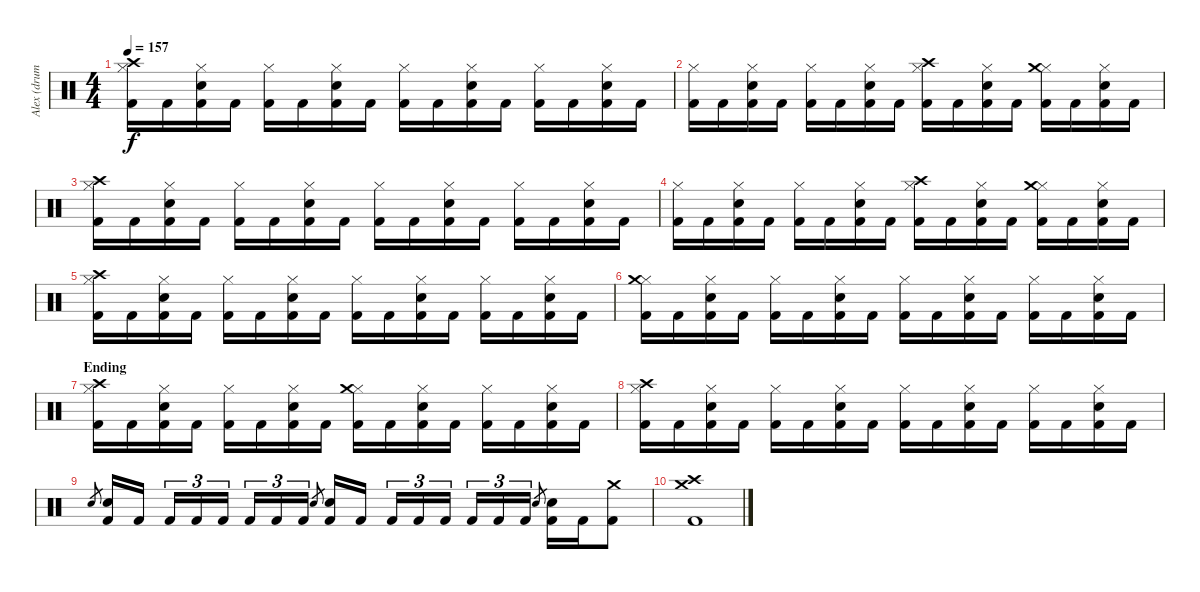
\track ("Alex (drums)" "Alex (drum") {instrument percussion}
\staff {score}
\articulation defaults
\ts (4 4)
\tempo 157
\clef neutral
\ks c
("Hi-Hat (closed)" "Kick (hit) 2" "Crash high (hit)").16{dy f} "Kick (hit) 2".16 ("Hi-Hat (closed)" "Snare (hit) 2" "Kick (hit) 2").16 "Kick (hit) 2".16 ("Hi-Hat (closed)" "Kick (hit) 2").16 "Kick (hit) 2".16 ("Hi-Hat (closed)" "Snare (hit) 2" "Kick (hit) 2").16 "Kick (hit) 2".16 ("Hi-Hat (closed)" "Kick (hit) 2").16 "Kick (hit) 2".16 ("Hi-Hat (closed)" "Snare (hit) 2" "Kick (hit) 2").16 "Kick (hit) 2".16 ("Hi-Hat (closed)" "Kick (hit) 2").16 "Kick (hit) 2".16 ("Hi-Hat (closed)" "Snare (hit) 2" "Kick (hit) 2").16 "Kick (hit) 2".16 |
("Hi-Hat (closed)" "Kick (hit) 2").16 "Kick (hit) 2".16 ("Hi-Hat (closed)" "Snare (hit) 2" "Kick (hit) 2").16 "Kick (hit) 2".16 ("Hi-Hat (closed)" "Kick (hit) 2").16 "Kick (hit) 2".16 ("Hi-Hat (closed)" "Snare (hit) 2" "Kick (hit) 2").16 "Kick (hit) 2".16 ("Hi-Hat (closed)" "Kick (hit) 2" "Crash high (hit)").16 "Kick (hit) 2".16 ("Hi-Hat (closed)" "Snare (hit) 2" "Kick (hit) 2").16 "Kick (hit) 2".16 ("Hi-Hat (closed)" "Kick (hit) 2" "Crash medium (hit)").16 "Kick (hit) 2".16 ("Hi-Hat (closed)" "Snare (hit) 2" "Kick (hit) 2").16 "Kick (hit) 2".16 |
("Hi-Hat (closed)" "Kick (hit) 2" "Crash high (hit)").16 "Kick (hit) 2".16 ("Hi-Hat (closed)" "Snare (hit) 2" "Kick (hit) 2").16 "Kick (hit) 2".16 ("Hi-Hat (closed)" "Kick (hit) 2").16 "Kick (hit) 2".16 ("Hi-Hat (closed)" "Snare (hit) 2" "Kick (hit) 2").16 "Kick (hit) 2".16 ("Hi-Hat (closed)" "Kick (hit) 2").16 "Kick (hit) 2".16 ("Hi-Hat (closed)" "Snare (hit) 2" "Kick (hit) 2").16 "Kick (hit) 2".16 ("Hi-Hat (closed)" "Kick (hit) 2").16 "Kick (hit) 2".16 ("Hi-Hat (closed)" "Snare (hit) 2" "Kick (hit) 2").16 "Kick (hit) 2".16 |
("Hi-Hat (closed)" "Kick (hit) 2").16 "Kick (hit) 2".16 ("Hi-Hat (closed)" "Snare (hit) 2" "Kick (hit) 2").16 "Kick (hit) 2".16 ("Hi-Hat (closed)" "Kick (hit) 2").16 "Kick (hit) 2".16 ("Hi-Hat (closed)" "Snare (hit) 2" "Kick (hit) 2").16 "Kick (hit) 2".16 ("Hi-Hat (closed)" "Kick (hit) 2" "Crash high (hit)").16 "Kick (hit) 2".16 ("Hi-Hat (closed)" "Snare (hit) 2" "Kick (hit) 2").16 "Kick (hit) 2".16 ("Hi-Hat (closed)" "Kick (hit) 2" "Crash medium (hit)").16 "Kick (hit) 2".16 ("Hi-Hat (closed)" "Snare (hit) 2" "Kick (hit) 2").16 "Kick (hit) 2".16 |
("Hi-Hat (closed)" "Kick (hit) 2" "Crash high (hit)").16 "Kick (hit) 2".16 ("Hi-Hat (closed)" "Snare (hit) 2" "Kick (hit) 2").16 "Kick (hit) 2".16 ("Hi-Hat (closed)" "Kick (hit) 2").16 "Kick (hit) 2".16 ("Hi-Hat (closed)" "Snare (hit) 2" "Kick (hit) 2").16 "Kick (hit) 2".16 ("Hi-Hat (closed)" "Kick (hit) 2").16 "Kick (hit) 2".16 ("Hi-Hat (closed)" "Snare (hit) 2" "Kick (hit) 2").16 "Kick (hit) 2".16 ("Hi-Hat (closed)" "Kick (hit) 2").16 "Kick (hit) 2".16 ("Hi-Hat (closed)" "Snare (hit) 2" "Kick (hit) 2").16 "Kick (hit) 2".16 |
("Hi-Hat (closed)" "Kick (hit) 2" "Crash medium (hit)").16 "Kick (hit) 2".16 ("Hi-Hat (closed)" "Snare (hit) 2" "Kick (hit) 2").16 "Kick (hit) 2".16 ("Hi-Hat (closed)" "Kick (hit) 2").16 "Kick (hit) 2".16 ("Hi-Hat (closed)" "Snare (hit) 2" "Kick (hit) 2").16 "Kick (hit) 2".16 ("Hi-Hat (closed)" "Kick (hit) 2").16 "Kick (hit) 2".16 ("Hi-Hat (closed)" "Snare (hit) 2" "Kick (hit) 2").16 "Kick (hit) 2".16 ("Hi-Hat (closed)" "Kick (hit) 2").16 "Kick (hit) 2".16 ("Hi-Hat (closed)" "Snare (hit) 2" "Kick (hit) 2").16 "Kick (hit) 2".16 |
\section ("" "Ending")
("Hi-Hat (closed)" "Kick (hit) 2" "Crash high (hit)").16 "Kick (hit) 2".16 ("Hi-Hat (closed)" "Snare (hit) 2" "Kick (hit) 2").16 "Kick (hit) 2".16 ("Hi-Hat (closed)" "Kick (hit) 2").16 "Kick (hit) 2".16 ("Hi-Hat (closed)" "Snare (hit) 2" "Kick (hit) 2").16 "Kick (hit) 2".16 ("Hi-Hat (closed)" "Kick (hit) 2" "Crash medium (hit)").16 "Kick (hit) 2".16 ("Hi-Hat (closed)" "Snare (hit) 2" "Kick (hit) 2").16 "Kick (hit) 2".16 ("Hi-Hat (closed)" "Kick (hit) 2").16 "Kick (hit) 2".16 ("Hi-Hat (closed)" "Snare (hit) 2" "Kick (hit) 2").16 "Kick (hit) 2".16 |
("Hi-Hat (closed)" "Kick (hit) 2" "Crash high (hit)").16 "Kick (hit) 2".16 ("Hi-Hat (closed)" "Snare (hit) 2" "Kick (hit) 2").16 "Kick (hit) 2".16 ("Hi-Hat (closed)" "Kick (hit) 2").16 "Kick (hit) 2".16 ("Hi-Hat (closed)" "Snare (hit) 2" "Kick (hit) 2").16 "Kick (hit) 2".16 ("Hi-Hat (closed)" "Kick (hit) 2").16 "Kick (hit) 2".16 ("Hi-Hat (closed)" "Snare (hit) 2" "Kick (hit) 2").16 "Kick (hit) 2".16 ("Hi-Hat (closed)" "Kick (hit) 2").16 "Kick (hit) 2".16 ("Hi-Hat (closed)" "Snare (hit) 2" "Kick (hit) 2").16 "Kick (hit) 2".16 |
"Snare (hit) 2".8{gr} ("Snare (hit) 2" "Kick (hit) 2").16 "Kick (hit) 2".16 "Kick (hit) 2".16{tu (3 2)} "Kick (hit) 2".16{tu (3 2)} "Kick (hit) 2".16{tu (3 2)} "Kick (hit) 2".16{tu (3 2)} "Kick (hit) 2".16{tu (3 2)} "Kick (hit) 2".16{tu (3 2)} "Snare (hit) 2".8{gr} ("Snare (hit) 2" "Kick (hit) 2").16 "Kick (hit) 2".16 "Kick (hit) 2".16{tu (3 2)} "Kick (hit) 2".16{tu (3 2)} "Kick (hit) 2".16{tu (3 2)} "Kick (hit) 2".16{tu (3 2)} "Kick (hit) 2".16{tu (3 2)} "Kick (hit) 2".16{tu (3 2)} "Snare (hit) 2".8{gr} ("Snare (hit) 2" "Kick (hit) 2").16 "Kick (hit) 2".16 ("Kick (hit) 2" "Crash medium (hit)").8 |
("Kick (hit) 2" "Crash medium (hit)" "Crash high (hit)").1
